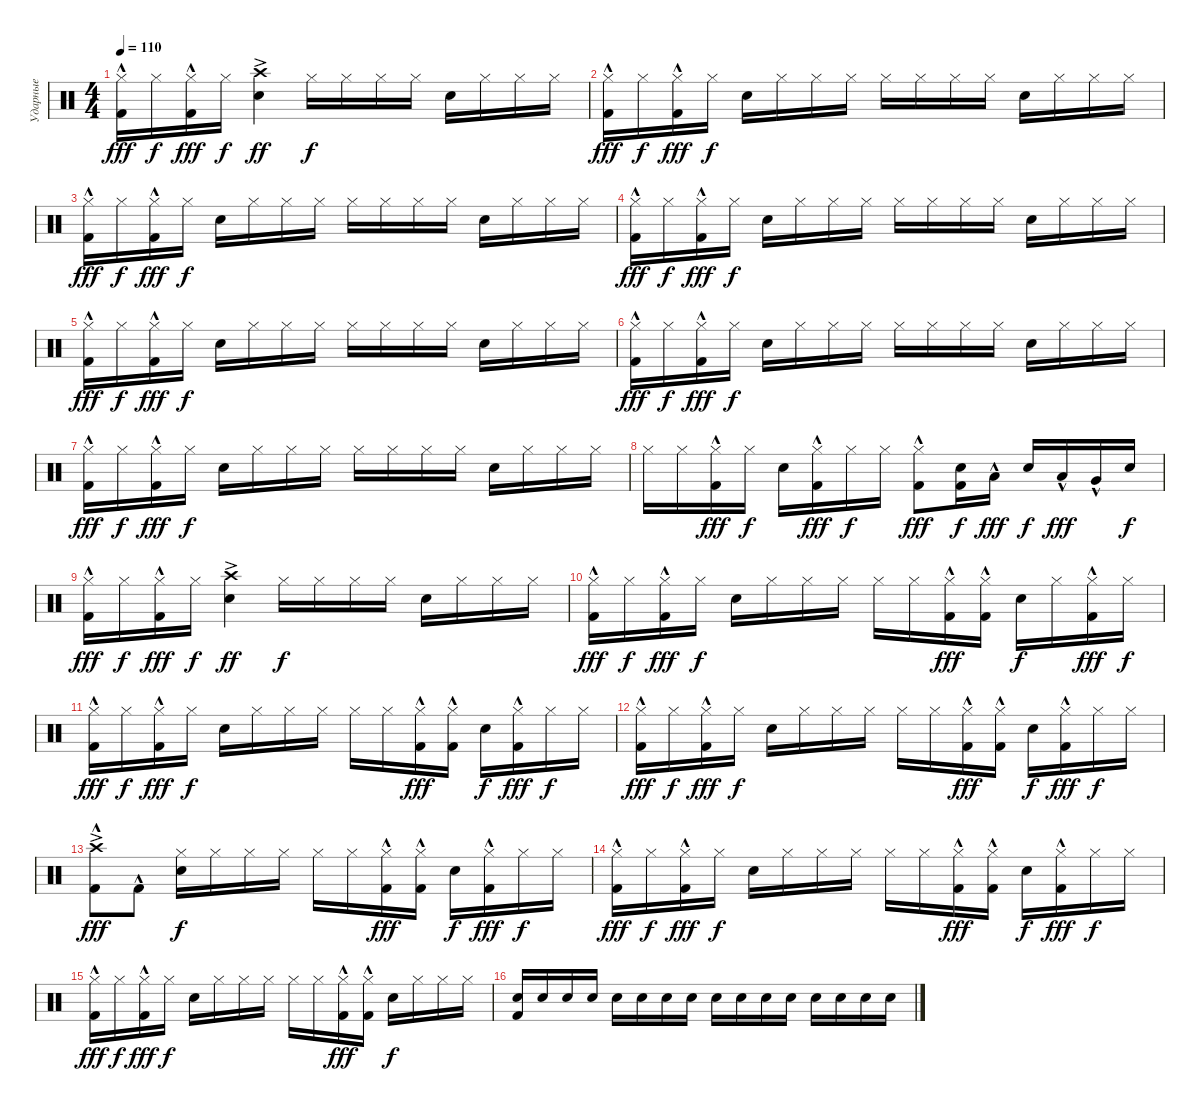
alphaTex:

\track ("Ударные" "Ударные") {instrument percussion}
\staff {score}
\articulation defaults
\ts (4 4)
\tempo 110
\clef neutral
\ks c
("Hi-Hat (closed)" "Kick (hit) 2"{hac}).16{dy fff} "Hi-Hat (closed)".16{dy f} ("Hi-Hat (closed)" "Kick (hit) 2"{hac}).16{dy fff} "Hi-Hat (closed)".16{dy f} ("Crash high (hit)"{ac} "Snare (hit) 2").4{dy ff} "Hi-Hat (closed)".16{dy f} "Hi-Hat (closed)".16 "Hi-Hat (closed)".16 "Hi-Hat (closed)".16 "Snare (hit) 2".16 "Hi-Hat (closed)".16 "Hi-Hat (closed)".16 "Hi-Hat (closed)".16 |
("Hi-Hat (closed)" "Kick (hit) 2"{hac}).16{dy fff} "Hi-Hat (closed)".16{dy f} ("Hi-Hat (closed)" "Kick (hit) 2"{hac}).16{dy fff} "Hi-Hat (closed)".16{dy f} "Snare (hit) 2".16 "Hi-Hat (closed)".16 "Hi-Hat (closed)".16 "Hi-Hat (closed)".16 "Hi-Hat (closed)".16 "Hi-Hat (closed)".16 "Hi-Hat (closed)".16 "Hi-Hat (closed)".16 "Snare (hit) 2".16 "Hi-Hat (closed)".16 "Hi-Hat (closed)".16 "Hi-Hat (closed)".16 |
("Hi-Hat (closed)" "Kick (hit) 2"{hac}).16{dy fff} "Hi-Hat (closed)".16{dy f} ("Hi-Hat (closed)" "Kick (hit) 2"{hac}).16{dy fff} "Hi-Hat (closed)".16{dy f} "Snare (hit) 2".16 "Hi-Hat (closed)".16 "Hi-Hat (closed)".16 "Hi-Hat (closed)".16 "Hi-Hat (closed)".16 "Hi-Hat (closed)".16 "Hi-Hat (closed)".16 "Hi-Hat (closed)".16 "Snare (hit) 2".16 "Hi-Hat (closed)".16 "Hi-Hat (closed)".16 "Hi-Hat (closed)".16 |
("Hi-Hat (closed)" "Kick (hit) 2"{hac}).16{dy fff} "Hi-Hat (closed)".16{dy f} ("Hi-Hat (closed)" "Kick (hit) 2"{hac}).16{dy fff} "Hi-Hat (closed)".16{dy f} "Snare (hit) 2".16 "Hi-Hat (closed)".16 "Hi-Hat (closed)".16 "Hi-Hat (closed)".16 "Hi-Hat (closed)".16 "Hi-Hat (closed)".16 "Hi-Hat (closed)".16 "Hi-Hat (closed)".16 "Snare (hit) 2".16 "Hi-Hat (closed)".16 "Hi-Hat (closed)".16 "Hi-Hat (closed)".16 |
("Hi-Hat (closed)" "Kick (hit) 2"{hac}).16{dy fff} "Hi-Hat (closed)".16{dy f} ("Hi-Hat (closed)" "Kick (hit) 2"{hac}).16{dy fff} "Hi-Hat (closed)".16{dy f} "Snare (hit) 2".16 "Hi-Hat (closed)".16 "Hi-Hat (closed)".16 "Hi-Hat (closed)".16 "Hi-Hat (closed)".16 "Hi-Hat (closed)".16 "Hi-Hat (closed)".16 "Hi-Hat (closed)".16 "Snare (hit) 2".16 "Hi-Hat (closed)".16 "Hi-Hat (closed)".16 "Hi-Hat (closed)".16 |
("Hi-Hat (closed)" "Kick (hit) 2"{hac}).16{dy fff} "Hi-Hat (closed)".16{dy f} ("Hi-Hat (closed)" "Kick (hit) 2"{hac}).16{dy fff} "Hi-Hat (closed)".16{dy f} "Snare (hit) 2".16 "Hi-Hat (closed)".16 "Hi-Hat (closed)".16 "Hi-Hat (closed)".16 "Hi-Hat (closed)".16 "Hi-Hat (closed)".16 "Hi-Hat (closed)".16 "Hi-Hat (closed)".16 "Snare (hit) 2".16 "Hi-Hat (closed)".16 "Hi-Hat (closed)".16 "Hi-Hat (closed)".16 |
("Hi-Hat (closed)" "Kick (hit) 2"{hac}).16{dy fff} "Hi-Hat (closed)".16{dy f} ("Hi-Hat (closed)" "Kick (hit) 2"{hac}).16{dy fff} "Hi-Hat (closed)".16{dy f} "Snare (hit) 2".16 "Hi-Hat (closed)".16 "Hi-Hat (closed)".16 "Hi-Hat (closed)".16 "Hi-Hat (closed)".16 "Hi-Hat (closed)".16 "Hi-Hat (closed)".16 "Hi-Hat (closed)".16 "Snare (hit) 2".16 "Hi-Hat (closed)".16 "Hi-Hat (closed)".16 "Hi-Hat (closed)".16 |
"Hi-Hat (closed)".16 "Hi-Hat (closed)".16 ("Hi-Hat (closed)" "Kick (hit) 2"{hac}).16{dy fff} "Hi-Hat (closed)".16{dy f} "Snare (hit) 2".16 ("Hi-Hat (closed)" "Kick (hit) 2"{hac}).16{dy fff} "Hi-Hat (closed)".16{dy f} "Hi-Hat (closed)".16 ("Hi-Hat (closed)" "Kick (hit) 2"{hac}).8{dy fff} ("Snare (hit) 2" "Kick (hit) 2").16{dy f} "Low Tom (hit)"{hac}.16{dy fff} "Snare (hit) 2".16{dy f} "Low Tom (hit)"{hac}.16{dy fff} "Very Low Tom (hit)"{hac}.16 "Snare (hit) 2".16{dy f} |
("Hi-Hat (closed)" "Kick (hit) 2"{hac}).16{dy fff} "Hi-Hat (closed)".16{dy f} ("Hi-Hat (closed)" "Kick (hit) 2"{hac}).16{dy fff} "Hi-Hat (closed)".16{dy f} ("Crash high (hit)"{ac} "Snare (hit) 2").4{dy ff} "Hi-Hat (closed)".16{dy f} "Hi-Hat (closed)".16 "Hi-Hat (closed)".16 "Hi-Hat (closed)".16 "Snare (hit) 2".16 "Hi-Hat (closed)".16 "Hi-Hat (closed)".16 "Hi-Hat (closed)".16 |
("Hi-Hat (closed)" "Kick (hit) 2"{hac}).16{dy fff} "Hi-Hat (closed)".16{dy f} ("Hi-Hat (closed)" "Kick (hit) 2"{hac}).16{dy fff} "Hi-Hat (closed)".16{dy f} "Snare (hit) 2".16 "Hi-Hat (closed)".16 "Hi-Hat (closed)".16 "Hi-Hat (closed)".16 "Hi-Hat (closed)".16 "Hi-Hat (closed)".16 ("Hi-Hat (closed)" "Kick (hit) 2"{hac}).16{dy fff} ("Hi-Hat (closed)" "Kick (hit) 2"{hac}).16 "Snare (hit) 2".16{dy f} "Hi-Hat (closed)".16 ("Hi-Hat (closed)" "Kick (hit) 2"{hac}).16{dy fff} "Hi-Hat (closed)".16{dy f} |
("Hi-Hat (closed)" "Kick (hit) 2"{hac}).16{dy fff} "Hi-Hat (closed)".16{dy f} ("Hi-Hat (closed)" "Kick (hit) 2"{hac}).16{dy fff} "Hi-Hat (closed)".16{dy f} "Snare (hit) 2".16 "Hi-Hat (closed)".16 "Hi-Hat (closed)".16 "Hi-Hat (closed)".16 "Hi-Hat (closed)".16 "Hi-Hat (closed)".16 ("Hi-Hat (closed)" "Kick (hit) 2"{hac}).16{dy fff} ("Hi-Hat (closed)" "Kick (hit) 2"{hac}).16 "Snare (hit) 2".16{dy f} ("Hi-Hat (closed)" "Kick (hit) 2"{hac}).16{dy fff} "Hi-Hat (closed)".16{dy f} "Hi-Hat (closed)".16 |
("Hi-Hat (closed)" "Kick (hit) 2"{hac}).16{dy fff} "Hi-Hat (closed)".16{dy f} ("Hi-Hat (closed)" "Kick (hit) 2"{hac}).16{dy fff} "Hi-Hat (closed)".16{dy f} "Snare (hit) 2".16 "Hi-Hat (closed)".16 "Hi-Hat (closed)".16 "Hi-Hat (closed)".16 "Hi-Hat (closed)".16 "Hi-Hat (closed)".16 ("Hi-Hat (closed)" "Kick (hit) 2"{hac}).16{dy fff} ("Hi-Hat (closed)" "Kick (hit) 2"{hac}).16 "Snare (hit) 2".16{dy f} ("Hi-Hat (closed)" "Kick (hit) 2"{hac}).16{dy fff} "Hi-Hat (closed)".16{dy f} "Hi-Hat (closed)".16 |
("Crash high (hit)"{ac} "Kick (hit) 2"{hac}).8{dy fff} "Kick (hit) 2"{hac}.8 ("Hi-Hat (closed)" "Snare (hit) 2").16{dy f} "Hi-Hat (closed)".16 "Hi-Hat (closed)".16 "Hi-Hat (closed)".16 "Hi-Hat (closed)".16 "Hi-Hat (closed)".16 ("Hi-Hat (closed)" "Kick (hit) 2"{hac}).16{dy fff} ("Hi-Hat (closed)" "Kick (hit) 2"{hac}).16 "Snare (hit) 2".16{dy f} ("Hi-Hat (closed)" "Kick (hit) 2"{hac}).16{dy fff} "Hi-Hat (closed)".16{dy f} "Hi-Hat (closed)".16 |
("Hi-Hat (closed)" "Kick (hit) 2"{hac}).16{dy fff} "Hi-Hat (closed)".16{dy f} ("Hi-Hat (closed)" "Kick (hit) 2"{hac}).16{dy fff} "Hi-Hat (closed)".16{dy f} "Snare (hit) 2".16 "Hi-Hat (closed)".16 "Hi-Hat (closed)".16 "Hi-Hat (closed)".16 "Hi-Hat (closed)".16 "Hi-Hat (closed)".16 ("Hi-Hat (closed)" "Kick (hit) 2"{hac}).16{dy fff} ("Hi-Hat (closed)" "Kick (hit) 2"{hac}).16 "Snare (hit) 2".16{dy f} ("Hi-Hat (closed)" "Kick (hit) 2"{hac}).16{dy fff} "Hi-Hat (closed)".16{dy f} "Hi-Hat (closed)".16 |
("Hi-Hat (closed)" "Kick (hit) 2"{hac}).16{dy fff} "Hi-Hat (closed)".16{dy f} ("Hi-Hat (closed)" "Kick (hit) 2"{hac}).16{dy fff} "Hi-Hat (closed)".16{dy f} "Snare (hit) 2".16 "Hi-Hat (closed)".16 "Hi-Hat (closed)".16 "Hi-Hat (closed)".16 "Hi-Hat (closed)".16 "Hi-Hat (closed)".16 ("Hi-Hat (closed)" "Kick (hit) 2"{hac}).16{dy fff} ("Hi-Hat (closed)" "Kick (hit) 2"{hac}).16 "Snare (hit) 2".16{dy f} "Hi-Hat (closed)".16 "Hi-Hat (closed)".16 "Hi-Hat (closed)".16 |
("Kick (hit) 2" "Snare (hit) 2").16 "Snare (hit) 2".16 "Snare (hit) 2".16 "Snare (hit) 2".16 "Snare (hit) 2".16 "Snare (hit) 2".16 "Snare (hit) 2".16 "Snare (hit) 2".16 "Snare (hit) 2".16 "Snare (hit) 2".16 "Snare (hit) 2".16 "Snare (hit) 2".16 "Snare (hit) 2".16 "Snare (hit) 2".16 "Snare (hit) 2".16 "Snare (hit) 2".16
